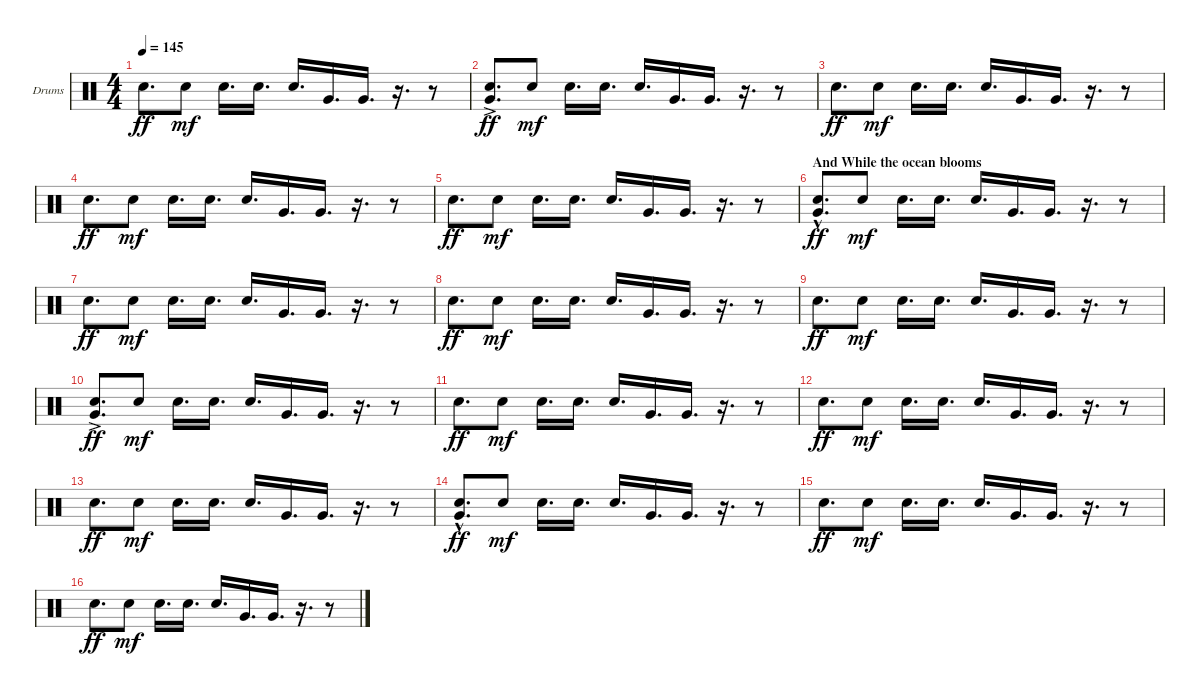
\defaultSystemsLayout 4
\bracketExtendMode groupsimilarinstruments
\firstSystemTrackNameOrientation horizontal
\otherSystemsTrackNameOrientation horizontal
\track ("Drumkit" "Drums") {instrument percussion}
\staff {score}
\articulation defaults
\ts (4 4)
\tempo 145
\clef neutral
\ks c "Snare (hit) 2".8{d dy ff} "Snare (hit) 2".8{dy mf} "Snare (hit) 2".16{d} "Snare (hit) 2".16{d} "Snare (hit) 2".16{d} "Very Low Tom (hit)".16{d} "Very Low Tom (hit)".16{d}
r.16{d} r.8 |
("Snare (hit) 2" "Very Low Tom (hit)"{ac}).8{d dy ff} "Snare (hit) 2".8{dy mf} "Snare (hit) 2".16{d} "Snare (hit) 2".16{d} "Snare (hit) 2".16{d} "Very Low Tom (hit)".16{d} "Very Low Tom (hit)".16{d} r.16{d} r.8 |
"Snare (hit) 2".8{d dy ff} "Snare (hit) 2".8{dy mf} "Snare (hit) 2".16{d} "Snare (hit) 2".16{d} "Snare (hit) 2".16{d} "Very Low Tom (hit)".16{d} "Very Low Tom (hit)".16{d} r.16{d} r.8 |
"Snare (hit) 2".8{d dy ff} "Snare (hit) 2".8{dy mf} "Snare (hit) 2".16{d} "Snare (hit) 2".16{d} "Snare (hit) 2".16{d} "Very Low Tom (hit)".16{d} "Very Low Tom (hit)".16{d} r.16{d} r.8 |
"Snare (hit) 2".8{d dy ff} "Snare (hit) 2".8{dy mf} "Snare (hit) 2".16{d} "Snare (hit) 2".16{d} "Snare (hit) 2".16{d} "Very Low Tom (hit)".16{d} "Very Low Tom (hit)".16{d} r.16{d} r.8 |
\section ("" "And While the ocean blooms")
("Snare (hit) 2" "Very Low Tom (hit)"{hac}).8{d dy ff} "Snare (hit) 2".8{dy mf} "Snare (hit) 2".16{d} "Snare (hit) 2".16{d} "Snare (hit) 2".16{d} "Very Low Tom (hit)".16{d} "Very Low Tom (hit)".16{d} r.16{d} r.8 |
"Snare (hit) 2".8{d dy ff} "Snare (hit) 2".8{dy mf} "Snare (hit) 2".16{d} "Snare (hit) 2".16{d} "Snare (hit) 2".16{d} "Very Low Tom (hit)".16{d} "Very Low Tom (hit)".16{d} r.16{d} r.8 |
"Snare (hit) 2".8{d dy ff} "Snare (hit) 2".8{dy mf} "Snare (hit) 2".16{d} "Snare (hit) 2".16{d} "Snare (hit) 2".16{d} "Very Low Tom (hit)".16{d} "Very Low Tom (hit)".16{d} r.16{d} r.8 |
"Snare (hit) 2".8{d dy ff} "Snare (hit) 2".8{dy mf} "Snare (hit) 2".16{d} "Snare (hit) 2".16{d} "Snare (hit) 2".16{d} "Very Low Tom (hit)".16{d} "Very Low Tom (hit)".16{d} r.16{d} r.8 |
("Snare (hit) 2" "Very Low Tom (hit)"{ac}).8{d dy ff} "Snare (hit) 2".8{dy mf} "Snare (hit) 2".16{d} "Snare (hit) 2".16{d} "Snare (hit) 2".16{d} "Very Low Tom (hit)".16{d} "Very Low Tom (hit)".16{d} r.16{d} r.8 |
"Snare (hit) 2".8{d dy ff} "Snare (hit) 2".8{dy mf} "Snare (hit) 2".16{d} "Snare (hit) 2".16{d} "Snare (hit) 2".16{d} "Very Low Tom (hit)".16{d} "Very Low Tom (hit)".16{d} r.16{d} r.8 |
"Snare (hit) 2".8{d dy ff} "Snare (hit) 2".8{dy mf} "Snare (hit) 2".16{d} "Snare (hit) 2".16{d} "Snare (hit) 2".16{d} "Very Low Tom (hit)".16{d} "Very Low Tom (hit)".16{d} r.16{d} r.8 |
"Snare (hit) 2".8{d dy ff} "Snare (hit) 2".8{dy mf} "Snare (hit) 2".16{d} "Snare (hit) 2".16{d} "Snare (hit) 2".16{d} "Very Low Tom (hit)".16{d} "Very Low Tom (hit)".16{d} r.16{d} r.8 |
("Snare (hit) 2" "Very Low Tom (hit)"{hac}).8{d dy ff} "Snare (hit) 2".8{dy mf} "Snare (hit) 2".16{d} "Snare (hit) 2".16{d} "Snare (hit) 2".16{d} "Very Low Tom (hit)".16{d} "Very Low Tom (hit)".16{d} r.16{d} r.8 |
"Snare (hit) 2".8{d dy ff} "Snare (hit) 2".8{dy mf} "Snare (hit) 2".16{d} "Snare (hit) 2".16{d} "Snare (hit) 2".16{d} "Very Low Tom (hit)".16{d} "Very Low Tom (hit)".16{d} r.16{d} r.8 |
"Snare (hit) 2".8{d dy ff} "Snare (hit) 2".8{dy mf} "Snare (hit) 2".16{d} "Snare (hit) 2".16{d} "Snare (hit) 2".16{d} "Very Low Tom (hit)".16{d} "Very Low Tom (hit)".16{d} r.16{d} r.8
